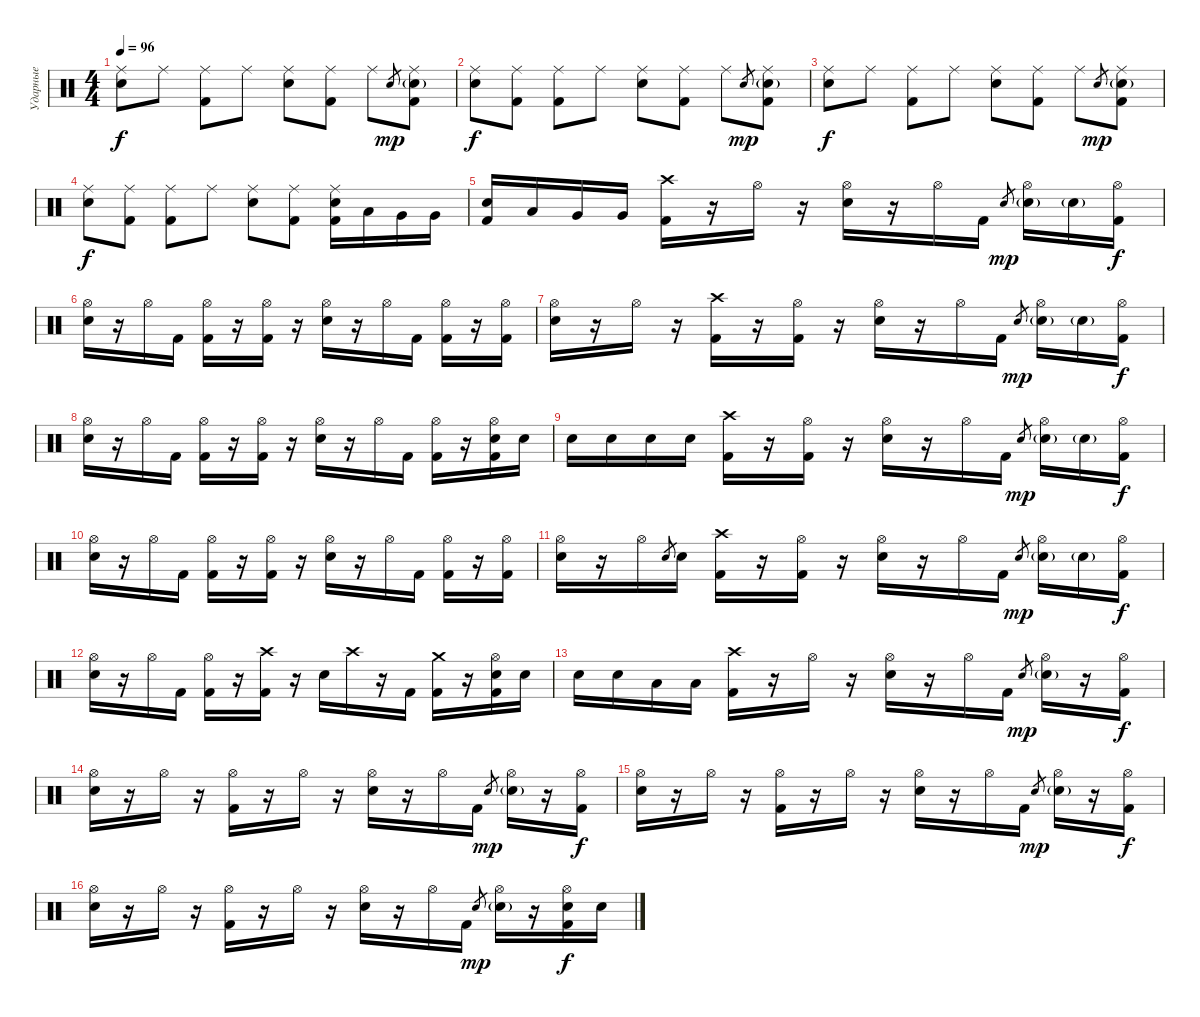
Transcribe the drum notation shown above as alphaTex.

\track ("Ударные" "Ударные") {instrument percussion}
\staff {score}
\articulation defaults
\ts (4 4)
\tempo 96
\clef neutral
\ks c
("Ride (middle)" "Electric Snare (hit)").8{dy f} "Ride (middle)".8 ("Ride (middle)" "Kick (hit) 2").8 "Ride (middle)".8 ("Ride (middle)" "Snare (hit) 2").8 ("Ride (middle)" "Kick (hit) 2").8 "Ride (middle)".8 "Snare (hit) 2".8{gr dy mp} ("Ride (middle)" "Snare (hit) 2"{g} "Kick (hit) 2").8 |
("Ride (middle)" "Snare (hit) 2").8{dy f} ("Ride (middle)" "Kick (hit) 2").8 ("Ride (middle)" "Kick (hit) 2").8 "Ride (middle)".8 ("Ride (middle)" "Electric Snare (hit)").8 ("Ride (middle)" "Kick (hit) 2").8 "Ride (middle)".8 "Electric Snare (hit)".8{gr dy mp} ("Ride (middle)" "Electric Snare (hit)"{g} "Kick (hit) 2").8 |
("Ride (middle)" "Electric Snare (hit)").8{dy f} "Ride (middle)".8 ("Ride (middle)" "Kick (hit) 2").8 "Ride (middle)".8 ("Ride (middle)" "Snare (hit) 2").8 ("Ride (middle)" "Kick (hit) 2").8 "Ride (middle)".8 "Snare (hit) 2".8{gr dy mp} ("Ride (middle)" "Snare (hit) 2"{g} "Kick (hit) 2").8 |
("Ride (middle)" "Snare (hit) 2").8{dy f} ("Ride (middle)" "Kick (hit) 2").8 ("Ride (middle)" "Kick (hit) 2").8 "Ride (middle)".8 ("Ride (middle)" "Electric Snare (hit)").8 ("Ride (middle)" "Kick (hit) 2").8 ("Ride (middle)" "Electric Snare (hit)" "Kick (hit) 2").16 "Low Tom (hit)".16 "Very Low Tom (hit)".16 "Very Low Tom (hit)".16 |
("Electric Snare (hit)" "Kick (hit) 2").16 "Low Tom (hit)".16 "Very Low Tom (hit)".16 "Very Low Tom (hit)".16 ("Crash high (hit)" "Kick (hit) 2").16 r.16 "Hi-Hat (open)".16 r.16 ("Hi-Hat (open)" "Electric Snare (hit)").16 r.16 "Hi-Hat (open)".16 "Kick (hit) 2".16 "Snare (hit) 2".8{gr dy mp} ("Hi-Hat (open)" "Snare (hit) 2"{g}).16 "Electric Snare (hit)"{g}.16 ("Hi-Hat (open)" "Kick (hit) 2").16{dy f} |
("Hi-Hat (open)" "Electric Snare (hit)").16 r.16 "Hi-Hat (open)".16 "Kick (hit) 2".16 ("Hi-Hat (open)" "Kick (hit) 2").16 r.16 ("Hi-Hat (open)" "Kick (hit) 2").16 r.16 ("Hi-Hat (open)" "Electric Snare (hit)").16 r.16 "Hi-Hat (open)".16 "Kick (hit) 2".16 ("Hi-Hat (open)" "Kick (hit) 2").16 r.16 ("Hi-Hat (open)" "Kick (hit) 2").16 |
("Hi-Hat (open)" "Electric Snare (hit)").16 r.16 "Hi-Hat (open)".16 r.16 ("Crash high (hit)" "Kick (hit) 2").16 r.16 ("Hi-Hat (open)" "Kick (hit) 2").16 r.16 ("Hi-Hat (open)" "Electric Snare (hit)").16 r.16 "Hi-Hat (open)".16 "Kick (hit) 2".16 "Snare (hit) 2".8{gr dy mp} ("Hi-Hat (open)" "Snare (hit) 2"{g}).16 "Electric Snare (hit)"{g}.16 ("Hi-Hat (open)" "Kick (hit) 2").16{dy f} |
("Hi-Hat (open)" "Electric Snare (hit)").16 r.16 "Hi-Hat (open)".16 "Kick (hit) 2".16 ("Hi-Hat (open)" "Kick (hit) 2").16 r.16 ("Hi-Hat (open)" "Kick (hit) 2").16 r.16 ("Hi-Hat (open)" "Electric Snare (hit)").16 r.16 "Hi-Hat (open)".16 "Kick (hit) 2".16 ("Hi-Hat (open)" "Kick (hit) 2").16 r.16 ("Hi-Hat (open)" "Electric Snare (hit)" "Kick (hit) 2").16 "Electric Snare (hit)".16 |
"Electric Snare (hit)".16 "Electric Snare (hit)".16 "Electric Snare (hit)".16 "Electric Snare (hit)".16 ("Crash high (hit)" "Kick (hit) 2").16 r.16 ("Hi-Hat (open)" "Kick (hit) 2").16 r.16 ("Hi-Hat (open)" "Electric Snare (hit)").16 r.16 "Hi-Hat (open)".16 "Kick (hit) 2".16 "Snare (hit) 2".8{gr dy mp} ("Hi-Hat (open)" "Snare (hit) 2"{g}).16 "Electric Snare (hit)"{g}.16 ("Hi-Hat (open)" "Kick (hit) 2").16{dy f} |
("Hi-Hat (open)" "Electric Snare (hit)").16 r.16 "Hi-Hat (open)".16 "Kick (hit) 2".16 ("Hi-Hat (open)" "Kick (hit) 2").16 r.16 ("Hi-Hat (open)" "Kick (hit) 2").16 r.16 ("Hi-Hat (open)" "Electric Snare (hit)").16 r.16 "Hi-Hat (open)".16 "Kick (hit) 2".16 ("Hi-Hat (open)" "Kick (hit) 2").16 r.16 ("Hi-Hat (open)" "Kick (hit) 2").16 |
("Hi-Hat (open)" "Electric Snare (hit)").16 r.16 "Hi-Hat (open)".16 "Snare (hit) 2".8{gr} "Snare (hit) 2".16 ("Crash high (hit)" "Kick (hit) 2").16 r.16 ("Hi-Hat (open)" "Kick (hit) 2").16 r.16 ("Hi-Hat (open)" "Electric Snare (hit)").16 r.16 "Hi-Hat (open)".16 "Kick (hit) 2".16 "Snare (hit) 2".8{gr dy mp} ("Hi-Hat (open)" "Snare (hit) 2"{g}).16 "Electric Snare (hit)"{g}.16 ("Hi-Hat (open)" "Kick (hit) 2").16{dy f} |
("Hi-Hat (open)" "Electric Snare (hit)").16 r.16 "Hi-Hat (open)".16 "Kick (hit) 2".16 ("Hi-Hat (open)" "Kick (hit) 2").16 r.16 ("Crash high (hit)" "Kick (hit) 2").16 r.16 "Electric Snare (hit)".16 "Crash high (hit)".16 r.16 "Kick (hit) 2".16 ("Crash medium (hit)" "Kick (hit) 2").16 r.16 ("Hi-Hat (open)" "Electric Snare (hit)" "Kick (hit) 2").16 "Electric Snare (hit)".16 |
"Electric Snare (hit)".16 "Electric Snare (hit)".16 "Low Tom (hit)".16 "Low Tom (hit)".16 ("Crash high (hit)" "Kick (hit) 2").16 r.16 "Hi-Hat (open)".16 r.16 ("Hi-Hat (open)" "Electric Snare (hit)").16 r.16 "Hi-Hat (open)".16 "Kick (hit) 2".16 "Snare (hit) 2".8{gr dy mp} ("Hi-Hat (open)" "Snare (hit) 2"{g}).16 r.16 ("Hi-Hat (open)" "Kick (hit) 2").16{dy f} |
("Hi-Hat (open)" "Electric Snare (hit)").16 r.16 "Hi-Hat (open)".16 r.16 ("Hi-Hat (open)" "Kick (hit) 2").16 r.16 "Hi-Hat (open)".16 r.16 ("Hi-Hat (open)" "Electric Snare (hit)").16 r.16 "Hi-Hat (open)".16 "Kick (hit) 2".16 "Snare (hit) 2".8{gr dy mp} ("Hi-Hat (open)" "Snare (hit) 2"{g}).16 r.16 ("Hi-Hat (open)" "Kick (hit) 2").16{dy f} |
("Hi-Hat (open)" "Electric Snare (hit)").16 r.16 "Hi-Hat (open)".16 r.16 ("Hi-Hat (open)" "Kick (hit) 2").16 r.16 "Hi-Hat (open)".16 r.16 ("Hi-Hat (open)" "Electric Snare (hit)").16 r.16 "Hi-Hat (open)".16 "Kick (hit) 2".16 "Snare (hit) 2".8{gr dy mp} ("Hi-Hat (open)" "Snare (hit) 2"{g}).16 r.16 ("Hi-Hat (open)" "Kick (hit) 2").16{dy f} |
("Hi-Hat (open)" "Electric Snare (hit)").16 r.16 "Hi-Hat (open)".16 r.16 ("Hi-Hat (open)" "Kick (hit) 2").16 r.16 "Hi-Hat (open)".16 r.16 ("Hi-Hat (open)" "Electric Snare (hit)").16 r.16 "Hi-Hat (open)".16 "Kick (hit) 2".16 "Snare (hit) 2".8{gr dy mp} ("Hi-Hat (open)" "Snare (hit) 2"{g}).16 r.16 ("Hi-Hat (open)" "Electric Snare (hit)" "Kick (hit) 2").16{dy f} "Electric Snare (hit)".16
